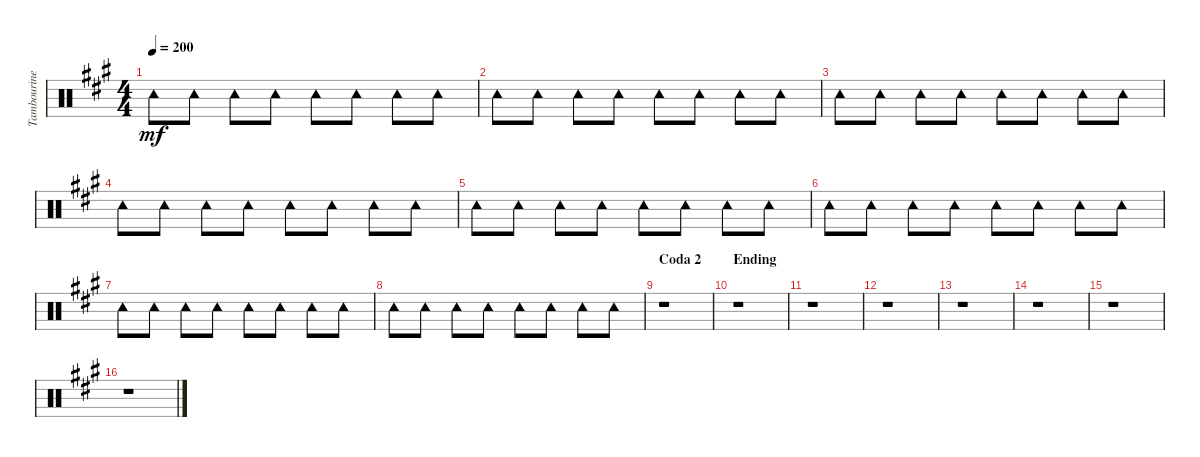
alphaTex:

\track ("Tambourine" "Tambourine") {instrument percussion}
\staff {score}
\articulation defaults
\ts (4 4)
\tempo 200
\clef neutral
\ks a "Tambourine (hit)".8{dy mf} "Tambourine (hit)".8 "Tambourine (hit)".8 "Tambourine (hit)".8 "Tambourine (hit)".8 "Tambourine (hit)".8 "Tambourine (hit)".8 "Tambourine (hit)".8
|
"Tambourine (hit)".8 "Tambourine (hit)".8 "Tambourine (hit)".8 "Tambourine (hit)".8 "Tambourine (hit)".8 "Tambourine (hit)".8 "Tambourine (hit)".8 "Tambourine (hit)".8 |
"Tambourine (hit)".8 "Tambourine (hit)".8 "Tambourine (hit)".8 "Tambourine (hit)".8 "Tambourine (hit)".8 "Tambourine (hit)".8 "Tambourine (hit)".8 "Tambourine (hit)".8 |
"Tambourine (hit)".8 "Tambourine (hit)".8 "Tambourine (hit)".8 "Tambourine (hit)".8 "Tambourine (hit)".8 "Tambourine (hit)".8 "Tambourine (hit)".8 "Tambourine (hit)".8 |
"Tambourine (hit)".8 "Tambourine (hit)".8 "Tambourine (hit)".8 "Tambourine (hit)".8 "Tambourine (hit)".8 "Tambourine (hit)".8 "Tambourine (hit)".8 "Tambourine (hit)".8 |
"Tambourine (hit)".8 "Tambourine (hit)".8 "Tambourine (hit)".8 "Tambourine (hit)".8 "Tambourine (hit)".8 "Tambourine (hit)".8 "Tambourine (hit)".8 "Tambourine (hit)".8 |
"Tambourine (hit)".8 "Tambourine (hit)".8 "Tambourine (hit)".8 "Tambourine (hit)".8 "Tambourine (hit)".8 "Tambourine (hit)".8 "Tambourine (hit)".8 "Tambourine (hit)".8 |
"Tambourine (hit)".8 "Tambourine (hit)".8 "Tambourine (hit)".8 "Tambourine (hit)".8 "Tambourine (hit)".8 "Tambourine (hit)".8 "Tambourine (hit)".8 "Tambourine (hit)".8 |
\section ("" "Coda 2")
r.1 |
\section ("" "Ending")
r.1 |
r.1 |
r.1 |
r.1 |
r.1 |
r.1 |
r.1
